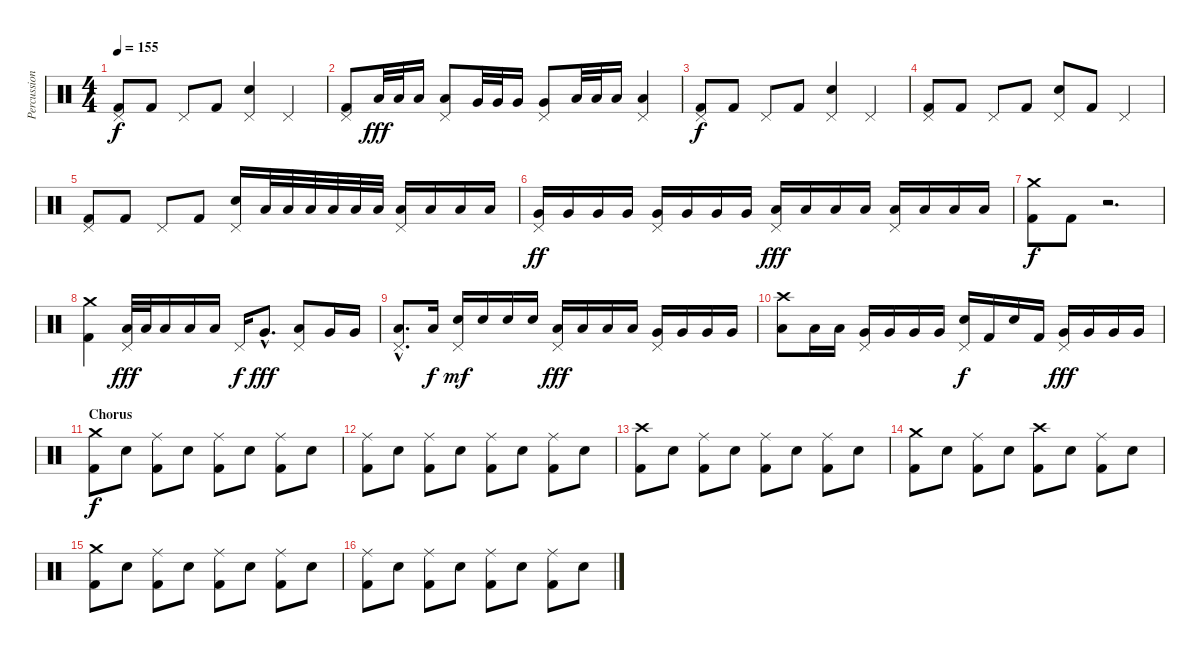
\track ("Percussion" "Percussion") {instrument percussion}
\staff {score}
\articulation defaults
\ts (4 4)
\tempo 155
\clef neutral
\ks c
("Pedal Hi-Hat (hit)" "Kick (hit) 2").8{dy f} "Kick (hit) 2".8 "Pedal Hi-Hat (hit)".8 "Kick (hit) 2".8 ("Pedal Hi-Hat (hit)" "Electric Snare (hit)").4 "Pedal Hi-Hat (hit)".4 |
("Pedal Hi-Hat (hit)" "Kick (hit) 2").8 "Low Tom (hit)".32{dy fff} "Low Tom (hit)".32 "Low Tom (hit)".16 ("Pedal Hi-Hat (hit)" "Low Tom (hit)").8 "Very Low Tom (hit)".32 "Very Low Tom (hit)".32 "Very Low Tom (hit)".16 ("Pedal Hi-Hat (hit)" "Very Low Tom (hit)").8 "Low Floor Tom (hit)".32 "Low Floor Tom (hit)".32 "Low Floor Tom (hit)".16 ("Pedal Hi-Hat (hit)" "Low Floor Tom (hit)").4 |
("Pedal Hi-Hat (hit)" "Kick (hit) 2").8{dy f} "Kick (hit) 2".8 "Pedal Hi-Hat (hit)".8 "Kick (hit) 2".8 ("Pedal Hi-Hat (hit)" "Electric Snare (hit)").4 "Pedal Hi-Hat (hit)".4 |
("Pedal Hi-Hat (hit)" "Kick (hit) 2").8 "Kick (hit) 2".8 "Pedal Hi-Hat (hit)".8 "Kick (hit) 2".8 ("Pedal Hi-Hat (hit)" "Electric Snare (hit)").8 "Kick (hit) 2".8 "Pedal Hi-Hat (hit)".4 |
("Pedal Hi-Hat (hit)" "Kick (hit) 2").8 "Kick (hit) 2".8 "Pedal Hi-Hat (hit)".8 "Kick (hit) 2".8 ("Pedal Hi-Hat (hit)" "Electric Snare (hit)").16 "Low Tom (hit)".32 "Low Tom (hit)".32 "Low Tom (hit)".32 "Low Tom (hit)".32 "Low Tom (hit)".32 "Low Tom (hit)".32 ("Pedal Hi-Hat (hit)" "Low Tom (hit)").16 "Low Tom (hit)".16 "Low Tom (hit)".16 "Low Tom (hit)".16 |
("Pedal Hi-Hat (hit)" "Very Low Tom (hit)").16{dy ff} "Very Low Tom (hit)".16 "Very Low Tom (hit)".16 "Very Low Tom (hit)".16 ("Pedal Hi-Hat (hit)" "Very Low Tom (hit)").16 "Very Low Tom (hit)".16 "Very Low Tom (hit)".16 "Very Low Tom (hit)".16 ("Pedal Hi-Hat (hit)" "Low Floor Tom (hit)").16{dy fff} "Low Floor Tom (hit)".16 "Low Floor Tom (hit)".16 "Low Floor Tom (hit)".16 ("Pedal Hi-Hat (hit)" "Low Floor Tom (hit)").16 "Low Floor Tom (hit)".16 "Low Floor Tom (hit)".16 "Low Floor Tom (hit)".16 |
("Crash medium (hit)" "Kick (hit) 2").8{dy f} "Kick (hit) 2".8 r.2{d} |
("Crash medium (hit)" "Kick (hit) 2").4 ("Pedal Hi-Hat (hit)" "Low Floor Tom (hit)").32{dy fff} "Low Floor Tom (hit)".32 "Low Floor Tom (hit)".16 "Low Floor Tom (hit)".16 "Low Tom (hit)".16 "Pedal Hi-Hat (hit)".16{dy f} "Very Low Tom (hit)"{hac}.8{d dy fff} ("Pedal Hi-Hat (hit)" "Low Floor Tom (hit)").8 "Very Low Tom (hit)".16 "Very Low Tom (hit)".16 |
("Pedal Hi-Hat (hit)"{hac} "Low Tom (hit)"{hac}).8{d} "Low Tom (hit)".16{dy f} ("Pedal Hi-Hat (hit)" "Electric Snare (hit)").16{dy mf} "Electric Snare (hit)".16 "Electric Snare (hit)".16 "Electric Snare (hit)".16 ("Pedal Hi-Hat (hit)" "Low Tom (hit)").16{dy fff} "Low Tom (hit)".16 "Low Tom (hit)".16 "Low Tom (hit)".16 ("Pedal Hi-Hat (hit)" "Very Low Tom (hit)").16 "Very Low Tom (hit)".16 "Very Low Tom (hit)".16 "Very Low Tom (hit)".16 |
("Crash high (hit)" "Low Floor Tom (hit)").8 "Low Floor Tom (hit)".16 "Low Floor Tom (hit)".16 ("Pedal Hi-Hat (hit)" "Very Low Tom (hit)").16 "Very Low Tom (hit)".16 "Very Low Tom (hit)".16 "Very Low Tom (hit)".16 ("Pedal Hi-Hat (hit)" "Electric Snare (hit)").16{dy f} "Kick (hit) 2".16 "Electric Snare (hit)".16 "Kick (hit) 2".16 ("Pedal Hi-Hat (hit)" "Very Low Tom (hit)").16{dy fff} "Very Low Tom (hit)".16 "Very Low Tom (hit)".16 "Very Low Tom (hit)".16 |
\section ("" "Chorus")
("Crash medium (hit)" "Kick (hit) 2").8{dy f} "Electric Snare (hit)".8 ("Ride (middle)" "Kick (hit) 2").8 "Electric Snare (hit)".8 ("Ride (middle)" "Kick (hit) 2").8 "Electric Snare (hit)".8 ("Ride (middle)" "Kick (hit) 2").8 "Electric Snare (hit)".8 |
("Ride (middle)" "Kick (hit) 2").8 "Electric Snare (hit)".8 ("Ride (middle)" "Kick (hit) 2").8 "Electric Snare (hit)".8 ("Ride (middle)" "Kick (hit) 2").8 "Electric Snare (hit)".8 ("Ride (middle)" "Kick (hit) 2").8 "Electric Snare (hit)".8 |
("Crash high (hit)" "Kick (hit) 2").8 "Electric Snare (hit)".8 ("Ride (middle)" "Kick (hit) 2").8 "Electric Snare (hit)".8 ("Ride (middle)" "Kick (hit) 2").8 "Electric Snare (hit)".8 ("Ride (middle)" "Kick (hit) 2").8 "Electric Snare (hit)".8 |
("Crash medium (hit)" "Kick (hit) 2").8 "Electric Snare (hit)".8 ("Ride (middle)" "Kick (hit) 2").8 "Electric Snare (hit)".8 ("Crash high (hit)" "Kick (hit) 2").8 "Electric Snare (hit)".8 ("Ride (middle)" "Kick (hit) 2").8 "Electric Snare (hit)".8 |
("Crash medium (hit)" "Kick (hit) 2").8 "Electric Snare (hit)".8 ("Ride (middle)" "Kick (hit) 2").8 "Electric Snare (hit)".8 ("Ride (middle)" "Kick (hit) 2").8 "Electric Snare (hit)".8 ("Ride (middle)" "Kick (hit) 2").8 "Electric Snare (hit)".8 |
("Ride (middle)" "Kick (hit) 2").8 "Electric Snare (hit)".8 ("Ride (middle)" "Kick (hit) 2").8 "Electric Snare (hit)".8 ("Ride (middle)" "Kick (hit) 2").8 "Electric Snare (hit)".8 ("Ride (middle)" "Kick (hit) 2").8 "Electric Snare (hit)".8
